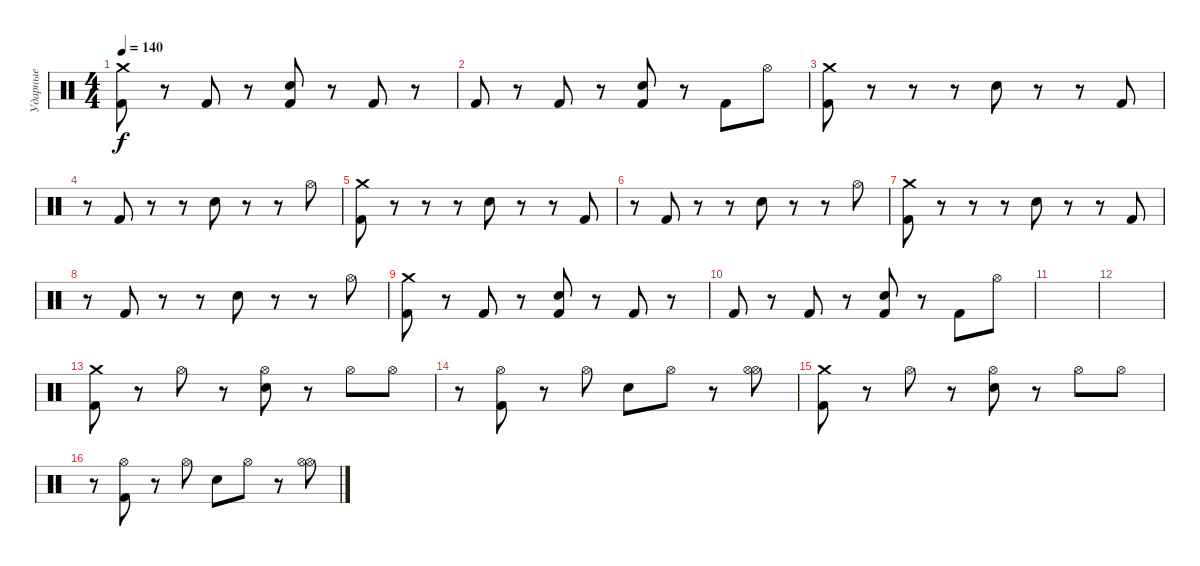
\track ("Ударные" "Ударные") {instrument percussion}
\staff {score}
\articulation defaults
\ts (4 4)
\tempo 140
\clef neutral
\ks c
("Crash medium (hit)" "Kick (hit) 2").8{dy f} r.8 "Kick (hit) 2".8 r.8 ("Snare (hit) 2" "Kick (hit) 2").8 r.8 "Kick (hit) 2".8 r.8 |
"Kick (hit) 2".8 r.8 "Kick (hit) 2".8 r.8 ("Snare (hit) 2" "Kick (hit) 2").8 r.8 "Kick (hit) 2".8 "Hi-Hat (open)".8 |
("Crash medium (hit)" "Kick (hit) 2").8 r.8 r.8 r.8 "Snare (hit) 2".8 r.8 r.8 "Kick (hit) 2".8 |
r.8 "Kick (hit) 2".8 r.8 r.8 "Snare (hit) 2".8 r.8 r.8 "Hi-Hat (open)".8 |
("Crash medium (hit)" "Kick (hit) 2").8 r.8 r.8 r.8 "Snare (hit) 2".8 r.8 r.8 "Kick (hit) 2".8 |
r.8 "Kick (hit) 2".8 r.8 r.8 "Snare (hit) 2".8 r.8 r.8 "Hi-Hat (open)".8 |
("Crash medium (hit)" "Kick (hit) 2").8 r.8 r.8 r.8 "Snare (hit) 2".8 r.8 r.8 "Kick (hit) 2".8 |
r.8 "Kick (hit) 2".8 r.8 r.8 "Snare (hit) 2".8 r.8 r.8 "Hi-Hat (open)".8 |
("Crash medium (hit)" "Kick (hit) 2").8 r.8 "Kick (hit) 2".8 r.8 ("Snare (hit) 2" "Kick (hit) 2").8 r.8 "Kick (hit) 2".8 r.8 |
"Kick (hit) 2".8 r.8 "Kick (hit) 2".8 r.8 ("Snare (hit) 2" "Kick (hit) 2").8 r.8 "Kick (hit) 2".8 "Hi-Hat (open)".8 |
|
|
("Crash medium (hit)" "Kick (hit) 2").8 r.8 "Hi-Hat (open)".8 r.8 ("Snare (hit) 2" "Hi-Hat (open)").8 r.8 "Hi-Hat (open)".8 "Hi-Hat (open)".8 |
r.8 ("Hi-Hat (open)" "Kick (hit) 2").8 r.8 "Hi-Hat (open)".8 "Snare (hit) 2".8 "Hi-Hat (open)".8 r.8 ("Hi-Hat (open)" "Hi-Hat (open)").8 |
("Crash medium (hit)" "Kick (hit) 2").8 r.8 "Hi-Hat (open)".8 r.8 ("Snare (hit) 2" "Hi-Hat (open)").8 r.8 "Hi-Hat (open)".8 "Hi-Hat (open)".8 |
r.8 ("Hi-Hat (open)" "Kick (hit) 2").8 r.8 "Hi-Hat (open)".8 "Snare (hit) 2".8 "Hi-Hat (open)".8 r.8 ("Hi-Hat (open)" "Hi-Hat (open)").8
